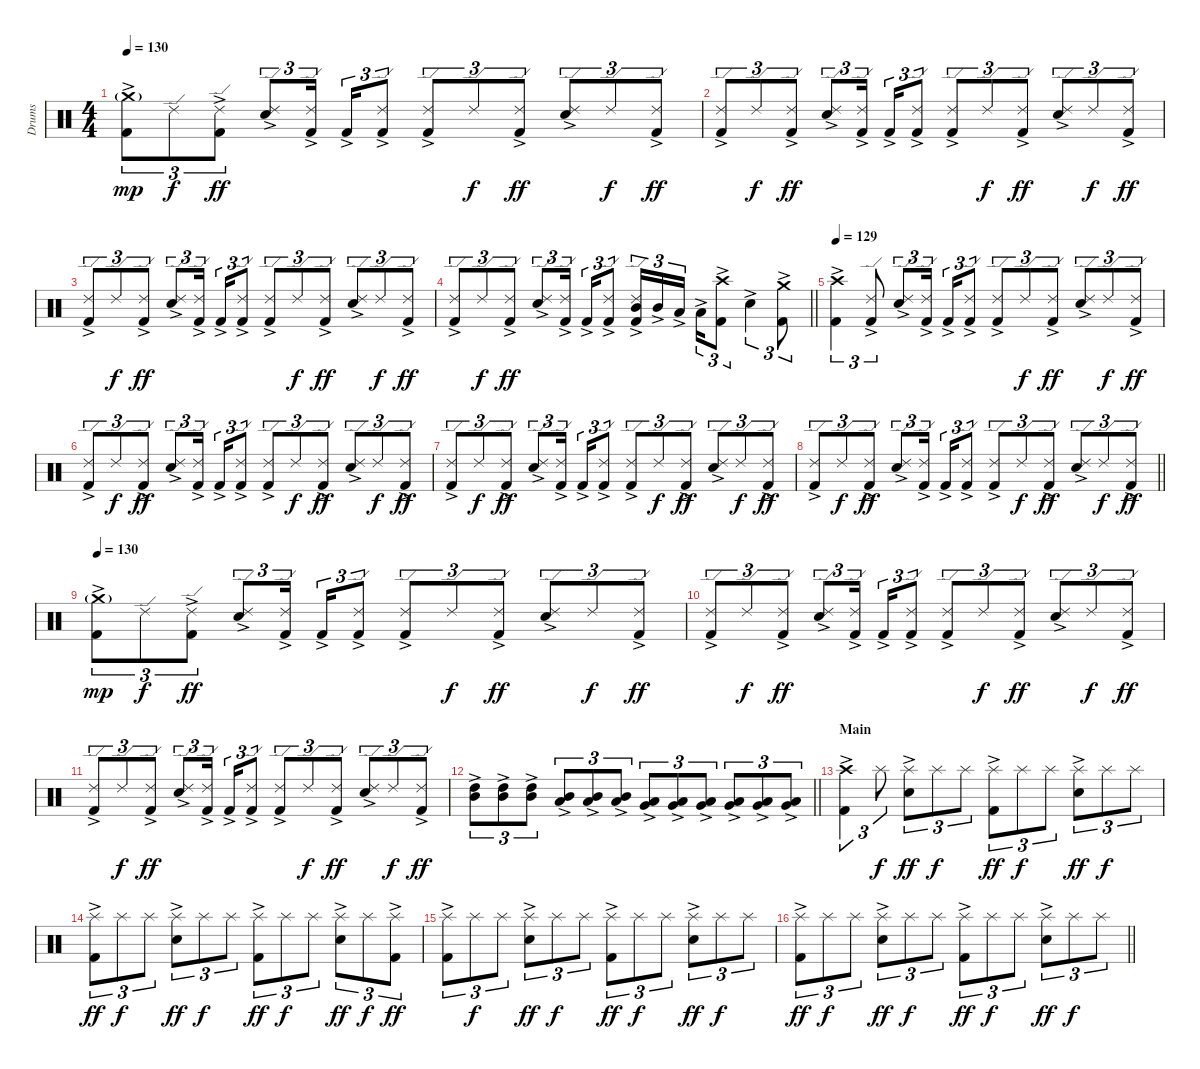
\track ("Drums" "Drums") {instrument percussion}
\staff {score}
\articulation defaults
\ts (4 4)
\section ("" "")
\tempo 130
\clef neutral
\ks c
("Kick (hit) 2"{ac} "Crash medium (hit)"{g}).8{tu (3 2) dy mp} "Ride (edge) 2".8{tu (3 2) dy f} ("Kick (hit) 2"{ac} "Ride (edge) 2").8{tu (3 2) dy ff} ("Snare (hit) 2"{ac} "Ride (edge) 2").8{tu (3 2)} ("Kick (hit) 2"{ac} "Ride (edge) 2").16{tu (3 2) beam splitsecondary} "Kick (hit) 2"{ac}.16{tu (3 2)} ("Kick (hit) 2"{ac} "Ride (edge) 2").8{tu (3 2)} ("Kick (hit) 2"{ac} "Ride (edge) 2").8{tu (3 2)} "Ride (edge) 2".8{tu (3 2) dy f} ("Kick (hit) 2"{ac} "Ride (edge) 2").8{tu (3 2) dy ff} ("Snare (hit) 2"{ac} "Ride (edge) 2").8{tu (3 2)} "Ride (edge) 2".8{tu (3 2) dy f} ("Kick (hit) 2"{ac} "Ride (edge) 2").8{tu (3 2) dy ff} |
("Kick (hit) 2"{ac} "Ride (edge) 2").8{tu (3 2)} "Ride (edge) 2".8{tu (3 2) dy f} ("Kick (hit) 2"{ac} "Ride (edge) 2").8{tu (3 2) dy ff} ("Snare (hit) 2"{ac} "Ride (edge) 2").8{tu (3 2)} ("Kick (hit) 2"{ac} "Ride (edge) 2").16{tu (3 2) beam splitsecondary} "Kick (hit) 2"{ac}.16{tu (3 2)} ("Kick (hit) 2"{ac} "Ride (edge) 2").8{tu (3 2)} ("Kick (hit) 2"{ac} "Ride (edge) 2").8{tu (3 2)} "Ride (edge) 2".8{tu (3 2) dy f} ("Kick (hit) 2"{ac} "Ride (edge) 2").8{tu (3 2) dy ff} ("Snare (hit) 2"{ac} "Ride (edge) 2").8{tu (3 2)} "Ride (edge) 2".8{tu (3 2) dy f} ("Kick (hit) 2"{ac} "Ride (edge) 2").8{tu (3 2) dy ff} |
("Kick (hit) 2"{ac} "Ride (edge) 2").8{tu (3 2)} "Ride (edge) 2".8{tu (3 2) dy f} ("Kick (hit) 2"{ac} "Ride (edge) 2").8{tu (3 2) dy ff} ("Snare (hit) 2"{ac} "Ride (edge) 2").8{tu (3 2)} ("Kick (hit) 2"{ac} "Ride (edge) 2").16{tu (3 2) beam splitsecondary} "Kick (hit) 2"{ac}.16{tu (3 2)} ("Kick (hit) 2"{ac} "Ride (edge) 2").8{tu (3 2)} ("Kick (hit) 2"{ac} "Ride (edge) 2").8{tu (3 2)} "Ride (edge) 2".8{tu (3 2) dy f} ("Kick (hit) 2"{ac} "Ride (edge) 2").8{tu (3 2) dy ff} ("Snare (hit) 2"{ac} "Ride (edge) 2").8{tu (3 2)} "Ride (edge) 2".8{tu (3 2) dy f} ("Kick (hit) 2"{ac} "Ride (edge) 2").8{tu (3 2) dy ff} |
\barLineRight lightlight
("Kick (hit) 2"{ac} "Ride (edge) 2").8{tu (3 2)} "Ride (edge) 2".8{tu (3 2) dy f} ("Kick (hit) 2"{ac} "Ride (edge) 2").8{tu (3 2) dy ff} ("Snare (hit) 2"{ac} "Ride (edge) 2").8{tu (3 2)} ("Kick (hit) 2"{ac} "Ride (edge) 2").16{tu (3 2) beam splitsecondary} "Kick (hit) 2"{ac}.16{tu (3 2)} ("Kick (hit) 2"{ac} "Ride (edge) 2").8{tu (3 2)} ("Kick (hit) 2"{ac} "Mid Tom (hit)"{ac} "Ride (edge) 2").16{tu (3 2)} "Mid Tom (hit)"{ac}.16{tu (3 2)} "Low Tom (hit)"{ac}.16{tu (3 2) beam splitsecondary} "Low Tom (hit)"{ac}.16{tu (3 2)} ("Kick (hit) 2"{ac} "Crash high (hit)").8{tu (3 2)} "Snare (hit) 2"{ac}.4{tu (3 2)} ("Kick (hit) 2"{ac} "Crash medium (hit)").8{tu (3 2)} |
\section ("" "")
\tempo 129
("Kick (hit) 2"{ac} "Crash high (hit)").4{tu (3 2)} ("Kick (hit) 2"{ac} "Ride (edge) 2").8{tu (3 2)} ("Snare (hit) 2"{ac} "Ride (edge) 2").8{tu (3 2)} ("Kick (hit) 2"{ac} "Ride (edge) 2").16{tu (3 2) beam splitsecondary} "Kick (hit) 2"{ac}.16{tu (3 2)} ("Kick (hit) 2"{ac} "Ride (edge) 2").8{tu (3 2)} ("Kick (hit) 2"{ac} "Ride (edge) 2").8{tu (3 2)} "Ride (edge) 2".8{tu (3 2) dy f} ("Kick (hit) 2"{ac} "Ride (edge) 2").8{tu (3 2) dy ff} ("Snare (hit) 2"{ac} "Ride (edge) 2").8{tu (3 2)} "Ride (edge) 2".8{tu (3 2) dy f} ("Kick (hit) 2"{ac} "Ride (edge) 2").8{tu (3 2) dy ff} |
("Kick (hit) 2"{ac} "Ride (edge) 2").8{tu (3 2)} "Ride (edge) 2".8{tu (3 2) dy f} ("Kick (hit) 2"{ac} "Ride (edge) 2").8{tu (3 2) dy ff} ("Snare (hit) 2"{ac} "Ride (edge) 2").8{tu (3 2)} ("Kick (hit) 2"{ac} "Ride (edge) 2").16{tu (3 2) beam splitsecondary} "Kick (hit) 2"{ac}.16{tu (3 2)} ("Kick (hit) 2"{ac} "Ride (edge) 2").8{tu (3 2)} ("Kick (hit) 2"{ac} "Ride (edge) 2").8{tu (3 2)} "Ride (edge) 2".8{tu (3 2) dy f} ("Kick (hit) 2"{ac} "Ride (edge) 2").8{tu (3 2) dy ff} ("Snare (hit) 2"{ac} "Ride (edge) 2").8{tu (3 2)} "Ride (edge) 2".8{tu (3 2) dy f} ("Kick (hit) 2"{ac} "Ride (edge) 2").8{tu (3 2) dy ff} |
("Kick (hit) 2"{ac} "Ride (edge) 2").8{tu (3 2)} "Ride (edge) 2".8{tu (3 2) dy f} ("Kick (hit) 2"{ac} "Ride (edge) 2").8{tu (3 2) dy ff} ("Snare (hit) 2"{ac} "Ride (edge) 2").8{tu (3 2)} ("Kick (hit) 2"{ac} "Ride (edge) 2").16{tu (3 2) beam splitsecondary} "Kick (hit) 2"{ac}.16{tu (3 2)} ("Kick (hit) 2"{ac} "Ride (edge) 2").8{tu (3 2)} ("Kick (hit) 2"{ac} "Ride (edge) 2").8{tu (3 2)} "Ride (edge) 2".8{tu (3 2) dy f} ("Kick (hit) 2"{ac} "Ride (edge) 2").8{tu (3 2) dy ff} ("Snare (hit) 2"{ac} "Ride (edge) 2").8{tu (3 2)} "Ride (edge) 2".8{tu (3 2) dy f} ("Kick (hit) 2"{ac} "Ride (edge) 2").8{tu (3 2) dy ff} |
\barLineRight lightlight
("Kick (hit) 2"{ac} "Ride (edge) 2").8{tu (3 2)} "Ride (edge) 2".8{tu (3 2) dy f} ("Kick (hit) 2"{ac} "Ride (edge) 2").8{tu (3 2) dy ff} ("Snare (hit) 2"{ac} "Ride (edge) 2").8{tu (3 2)} ("Kick (hit) 2"{ac} "Ride (edge) 2").16{tu (3 2) beam splitsecondary} "Kick (hit) 2"{ac}.16{tu (3 2)} ("Kick (hit) 2"{ac} "Ride (edge) 2").8{tu (3 2)} ("Kick (hit) 2"{ac} "Ride (edge) 2").8{tu (3 2)} "Ride (edge) 2".8{tu (3 2) dy f} ("Kick (hit) 2"{ac} "Ride (edge) 2").8{tu (3 2) dy ff} ("Snare (hit) 2"{ac} "Ride (edge) 2").8{tu (3 2)} "Ride (edge) 2".8{tu (3 2) dy f} ("Kick (hit) 2"{ac} "Ride (edge) 2").8{tu (3 2) dy ff} |
\section ("" "")
\tempo 130
("Kick (hit) 2"{ac} "Crash medium (hit)"{g}).8{tu (3 2) dy mp} "Ride (edge) 2".8{tu (3 2) dy f} ("Kick (hit) 2"{ac} "Ride (edge) 2").8{tu (3 2) dy ff} ("Snare (hit) 2"{ac} "Ride (edge) 2").8{tu (3 2)} ("Kick (hit) 2"{ac} "Ride (edge) 2").16{tu (3 2) beam splitsecondary} "Kick (hit) 2"{ac}.16{tu (3 2)} ("Kick (hit) 2"{ac} "Ride (edge) 2").8{tu (3 2)} ("Kick (hit) 2"{ac} "Ride (edge) 2").8{tu (3 2)} "Ride (edge) 2".8{tu (3 2) dy f} ("Kick (hit) 2"{ac} "Ride (edge) 2").8{tu (3 2) dy ff} ("Snare (hit) 2"{ac} "Ride (edge) 2").8{tu (3 2)} "Ride (edge) 2".8{tu (3 2) dy f} ("Kick (hit) 2"{ac} "Ride (edge) 2").8{tu (3 2) dy ff} |
("Kick (hit) 2"{ac} "Ride (edge) 2").8{tu (3 2)} "Ride (edge) 2".8{tu (3 2) dy f} ("Kick (hit) 2"{ac} "Ride (edge) 2").8{tu (3 2) dy ff} ("Snare (hit) 2"{ac} "Ride (edge) 2").8{tu (3 2)} ("Kick (hit) 2"{ac} "Ride (edge) 2").16{tu (3 2) beam splitsecondary} "Kick (hit) 2"{ac}.16{tu (3 2)} ("Kick (hit) 2"{ac} "Ride (edge) 2").8{tu (3 2)} ("Kick (hit) 2"{ac} "Ride (edge) 2").8{tu (3 2)} "Ride (edge) 2".8{tu (3 2) dy f} ("Kick (hit) 2"{ac} "Ride (edge) 2").8{tu (3 2) dy ff} ("Snare (hit) 2"{ac} "Ride (edge) 2").8{tu (3 2)} "Ride (edge) 2".8{tu (3 2) dy f} ("Kick (hit) 2"{ac} "Ride (edge) 2").8{tu (3 2) dy ff} |
("Kick (hit) 2"{ac} "Ride (edge) 2").8{tu (3 2)} "Ride (edge) 2".8{tu (3 2) dy f} ("Kick (hit) 2"{ac} "Ride (edge) 2").8{tu (3 2) dy ff} ("Snare (hit) 2"{ac} "Ride (edge) 2").8{tu (3 2)} ("Kick (hit) 2"{ac} "Ride (edge) 2").16{tu (3 2) beam splitsecondary} "Kick (hit) 2"{ac}.16{tu (3 2)} ("Kick (hit) 2"{ac} "Ride (edge) 2").8{tu (3 2)} ("Kick (hit) 2"{ac} "Ride (edge) 2").8{tu (3 2)} "Ride (edge) 2".8{tu (3 2) dy f} ("Kick (hit) 2"{ac} "Ride (edge) 2").8{tu (3 2) dy ff} ("Snare (hit) 2"{ac} "Ride (edge) 2").8{tu (3 2)} "Ride (edge) 2".8{tu (3 2) dy f} ("Kick (hit) 2"{ac} "Ride (edge) 2").8{tu (3 2) dy ff} |
\barLineRight lightlight
("Mid Tom (hit)"{ac} "High Tom (hit)").8{tu (3 2)} ("Mid Tom (hit)"{ac} "High Tom (hit)").8{tu (3 2)} ("Mid Tom (hit)"{ac} "High Tom (hit)").8{tu (3 2)} ("Low Tom (hit)"{ac} "Mid Tom (hit)").8{tu (3 2)} ("Low Tom (hit)"{ac} "Mid Tom (hit)").8{tu (3 2)} ("Low Tom (hit)"{ac} "Mid Tom (hit)").8{tu (3 2)} ("Very Low Tom (hit)"{ac} "Low Tom (hit)").8{tu (3 2)} ("Very Low Tom (hit)"{ac} "Low Tom (hit)").8{tu (3 2)} ("Very Low Tom (hit)"{ac} "Low Tom (hit)").8{tu (3 2)} ("Low Floor Tom (hit)"{ac} "Very Low Tom (hit)").8{tu (3 2)} ("Low Floor Tom (hit)"{ac} "Very Low Tom (hit)").8{tu (3 2)} ("Low Floor Tom (hit)"{ac} "Very Low Tom (hit)").8{tu (3 2)} |
\section ("" "Main")
("Kick (hit) 2"{ac} "Crash high (hit)").4{tu (3 2)} "Splash (hit)".8{tu (3 2) dy f} ("Snare (hit) 2"{ac} "Splash (hit)").8{tu (3 2) dy ff} "Splash (hit)".8{tu (3 2) dy f} "Splash (hit)".8{tu (3 2)} ("Kick (hit) 2"{ac} "Splash (hit)").8{tu (3 2) dy ff} "Splash (hit)".8{tu (3 2) dy f} "Splash (hit)".8{tu (3 2)} ("Snare (hit) 2"{ac} "Splash (hit)").8{tu (3 2) dy ff} "Splash (hit)".8{tu (3 2) dy f} "Splash (hit)".8{tu (3 2)} |
("Kick (hit) 2"{ac} "Splash (hit)").8{tu (3 2) dy ff} "Splash (hit)".8{tu (3 2) dy f} "Splash (hit)".8{tu (3 2)} ("Snare (hit) 2"{ac} "Splash (hit)").8{tu (3 2) dy ff} "Splash (hit)".8{tu (3 2) dy f} "Splash (hit)".8{tu (3 2)} ("Kick (hit) 2"{ac} "Splash (hit)").8{tu (3 2) dy ff} "Splash (hit)".8{tu (3 2) dy f} "Splash (hit)".8{tu (3 2)} ("Snare (hit) 2"{ac} "Splash (hit)").8{tu (3 2) dy ff} "Splash (hit)".8{tu (3 2) dy f} ("Kick (hit) 2"{ac} "Splash (hit)").8{tu (3 2) dy ff} |
("Kick (hit) 2"{ac} "Splash (hit)").8{tu (3 2)} "Splash (hit)".8{tu (3 2) dy f} "Splash (hit)".8{tu (3 2)} ("Snare (hit) 2"{ac} "Splash (hit)").8{tu (3 2) dy ff} "Splash (hit)".8{tu (3 2) dy f} "Splash (hit)".8{tu (3 2)} ("Kick (hit) 2"{ac} "Splash (hit)").8{tu (3 2) dy ff} "Splash (hit)".8{tu (3 2) dy f} "Splash (hit)".8{tu (3 2)} ("Snare (hit) 2"{ac} "Splash (hit)").8{tu (3 2) dy ff} "Splash (hit)".8{tu (3 2) dy f} "Splash (hit)".8{tu (3 2)} |
\barLineRight lightlight
("Kick (hit) 2"{ac} "Splash (hit)").8{tu (3 2) dy ff} "Splash (hit)".8{tu (3 2) dy f} "Splash (hit)".8{tu (3 2)} ("Snare (hit) 2"{ac} "Splash (hit)").8{tu (3 2) dy ff} "Splash (hit)".8{tu (3 2) dy f} "Splash (hit)".8{tu (3 2)} ("Kick (hit) 2"{ac} "Splash (hit)").8{tu (3 2) dy ff} "Splash (hit)".8{tu (3 2) dy f} "Splash (hit)".8{tu (3 2)} ("Snare (hit) 2"{ac} "Splash (hit)").8{tu (3 2) dy ff} "Splash (hit)".8{tu (3 2) dy f} "Splash (hit)".8{tu (3 2)}
